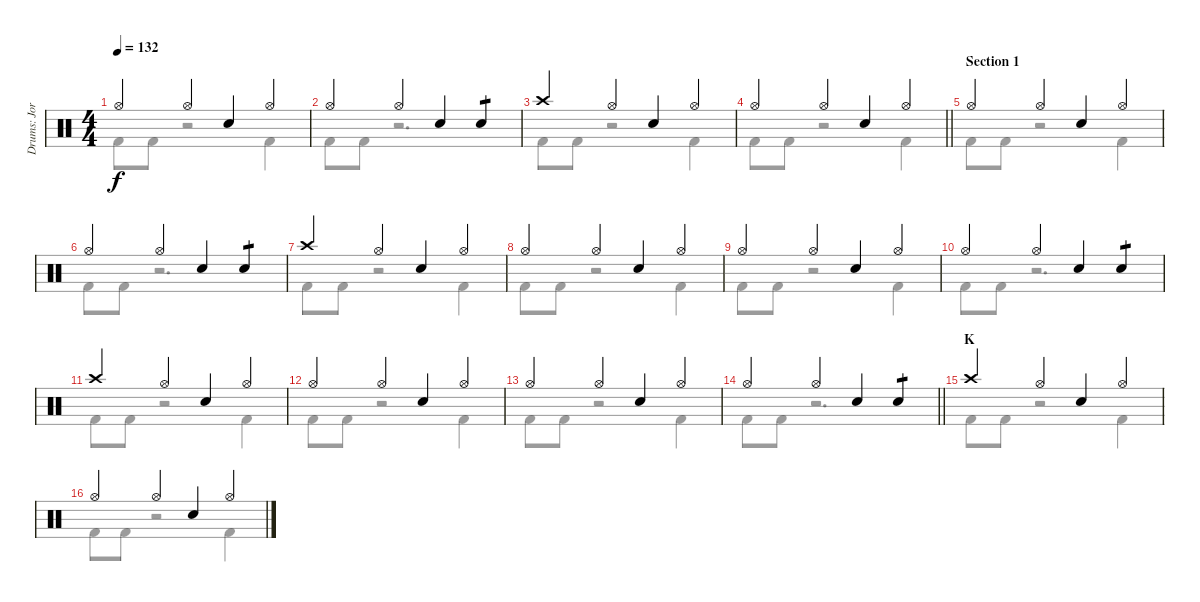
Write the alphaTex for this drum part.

\track ("Drums: Jorg" "Drums: Jor") {instrument percussion}
\staff {score}
\articulation defaults
\voice
\ts (4 4)
\tempo 132
\clef neutral
\ks c "Hi-Hat (open)".4{dy f} "Hi-Hat (open)".4 "Snare (hit) 2".4 "Hi-Hat (open)".4
|
"Hi-Hat (open)".4 "Hi-Hat (open)".4 "Snare (hit) 2".4 "Snare (hit) 2".4{tp 1} |
"Crash high (hit)".4 "Hi-Hat (open)".4 "Snare (hit) 2".4 "Hi-Hat (open)".4 |
\barLineRight lightlight "Hi-Hat (open)".4 "Hi-Hat (open)".4 "Snare (hit) 2".4 "Hi-Hat (open)".4
|
\section ("" "Section 1")
"Hi-Hat (open)".4 "Hi-Hat (open)".4 "Snare (hit) 2".4 "Hi-Hat (open)".4 |
"Hi-Hat (open)".4 "Hi-Hat (open)".4 "Snare (hit) 2".4 "Snare (hit) 2".4{tp 1} |
"Crash high (hit)".4 "Hi-Hat (open)".4 "Snare (hit) 2".4 "Hi-Hat (open)".4 |
"Hi-Hat (open)".4 "Hi-Hat (open)".4 "Snare (hit) 2".4 "Hi-Hat (open)".4 |
"Hi-Hat (open)".4 "Hi-Hat (open)".4 "Snare (hit) 2".4 "Hi-Hat (open)".4 |
"Hi-Hat (open)".4 "Hi-Hat (open)".4 "Snare (hit) 2".4 "Snare (hit) 2".4{tp 1} |
"Crash high (hit)".4 "Hi-Hat (open)".4 "Snare (hit) 2".4 "Hi-Hat (open)".4 |
"Hi-Hat (open)".4 "Hi-Hat (open)".4 "Snare (hit) 2".4 "Hi-Hat (open)".4 |
"Hi-Hat (open)".4 "Hi-Hat (open)".4 "Snare (hit) 2".4 "Hi-Hat (open)".4 |
\barLineRight lightlight "Hi-Hat (open)".4 "Hi-Hat (open)".4 "Snare (hit) 2".4 "Snare (hit) 2".4{tp 1}
|
\section ("" "K")
"Crash high (hit)".4 "Hi-Hat (open)".4 "Snare (hit) 2".4 "Hi-Hat (open)".4 |
"Hi-Hat (open)".4 "Hi-Hat (open)".4 "Snare (hit) 2".4 "Hi-Hat (open)".4
\voice
\clef neutral
\ottava regular
\simile none
\ks c "Kick (hit) 2".8{dy f} "Kick (hit) 2".8
r.2 "Kick (hit) 2".4 |
"Kick (hit) 2".8 "Kick (hit) 2".8 r.2{d} |
"Kick (hit) 2".8 "Kick (hit) 2".8 r.2 "Kick (hit) 2".4 |
\barLineRight lightlight "Kick (hit) 2".8 "Kick (hit) 2".8
r.2 "Kick (hit) 2".4 |
"Kick (hit) 2".8 "Kick (hit) 2".8 r.2 "Kick (hit) 2".4 |
"Kick (hit) 2".8 "Kick (hit) 2".8 r.2{d} |
"Kick (hit) 2".8 "Kick (hit) 2".8 r.2 "Kick (hit) 2".4 |
"Kick (hit) 2".8 "Kick (hit) 2".8 r.2 "Kick (hit) 2".4 |
"Kick (hit) 2".8 "Kick (hit) 2".8 r.2 "Kick (hit) 2".4 |
"Kick (hit) 2".8 "Kick (hit) 2".8 r.2{d} |
"Kick (hit) 2".8 "Kick (hit) 2".8 r.2 "Kick (hit) 2".4 |
"Kick (hit) 2".8 "Kick (hit) 2".8 r.2 "Kick (hit) 2".4 |
"Kick (hit) 2".8 "Kick (hit) 2".8 r.2 "Kick (hit) 2".4 |
\barLineRight lightlight "Kick (hit) 2".8 "Kick (hit) 2".8
r.2{d} |
"Kick (hit) 2".8 "Kick (hit) 2".8 r.2 "Kick (hit) 2".4 |
"Kick (hit) 2".8 "Kick (hit) 2".8 r.2 "Kick (hit) 2".4
